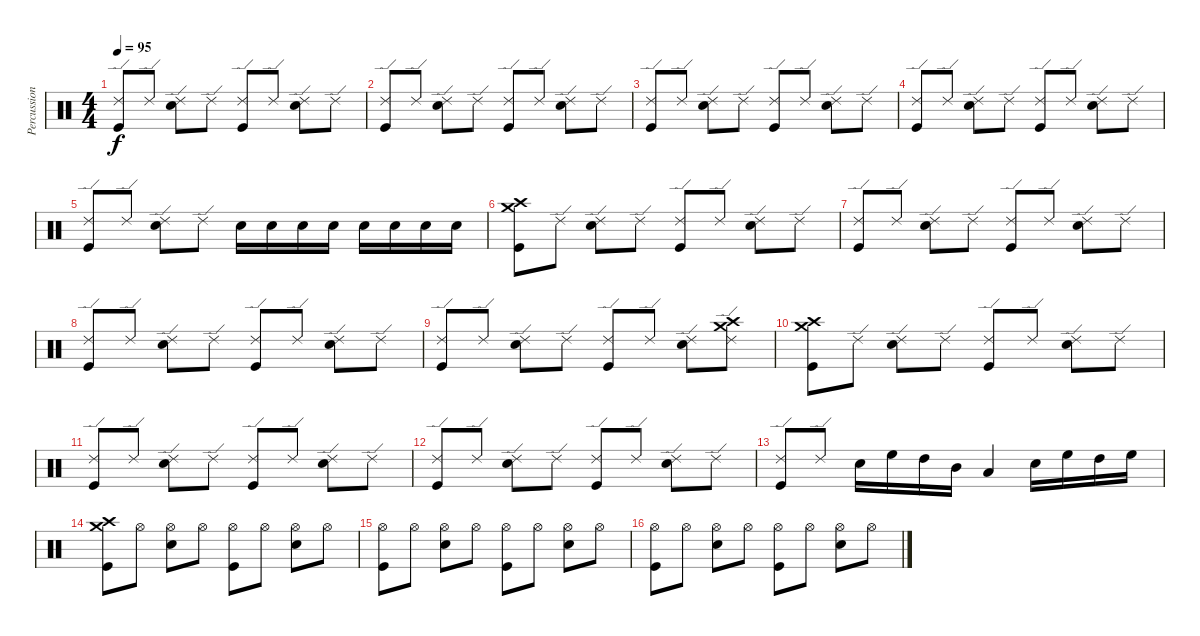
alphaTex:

\track ("Percussion" "Percussion") {instrument percussion}
\staff {score}
\articulation defaults
\ts (4 4)
\tempo 95
\clef neutral
\ks c
("Ride (edge) 2" "Kick (hit)").8{dy f} "Ride (edge) 2".8 ("Ride (edge) 2" "Electric Snare (hit)").8 "Ride (edge) 2".8 ("Ride (edge) 2" "Kick (hit)").8 "Ride (edge) 2".8 ("Ride (edge) 2" "Electric Snare (hit)").8 "Ride (edge) 2".8 |
("Ride (edge) 2" "Kick (hit)").8 "Ride (edge) 2".8 ("Ride (edge) 2" "Electric Snare (hit)").8 "Ride (edge) 2".8 ("Ride (edge) 2" "Kick (hit)").8 "Ride (edge) 2".8 ("Ride (edge) 2" "Electric Snare (hit)").8 "Ride (edge) 2".8 |
("Ride (edge) 2" "Kick (hit)").8 "Ride (edge) 2".8 ("Ride (edge) 2" "Electric Snare (hit)").8 "Ride (edge) 2".8 ("Ride (edge) 2" "Kick (hit)").8 "Ride (edge) 2".8 ("Ride (edge) 2" "Electric Snare (hit)").8 "Ride (edge) 2".8 |
("Ride (edge) 2" "Kick (hit)").8 "Ride (edge) 2".8 ("Ride (edge) 2" "Electric Snare (hit)").8 "Ride (edge) 2".8 ("Ride (edge) 2" "Kick (hit)").8 "Ride (edge) 2".8 ("Ride (edge) 2" "Electric Snare (hit)").8 "Ride (edge) 2".8 |
("Ride (edge) 2" "Kick (hit)").8 "Ride (edge) 2".8 ("Ride (edge) 2" "Electric Snare (hit)").8 "Ride (edge) 2".8 "Snare (hit) 2".16 "Snare (hit) 2".16 "Snare (hit) 2".16 "Snare (hit) 2".16 "Snare (hit) 2".16 "Snare (hit) 2".16 "Snare (hit) 2".16 "Snare (hit) 2".16 |
("Crash medium (hit)" "Crash high (hit)" "Kick (hit)").8 "Ride (edge) 2".8 ("Ride (edge) 2" "Electric Snare (hit)").8 "Ride (edge) 2".8 ("Ride (edge) 2" "Kick (hit)").8 "Ride (edge) 2".8 ("Ride (edge) 2" "Electric Snare (hit)").8 "Ride (edge) 2".8 |
("Ride (edge) 2" "Kick (hit)").8 "Ride (edge) 2".8 ("Ride (edge) 2" "Electric Snare (hit)").8 "Ride (edge) 2".8 ("Ride (edge) 2" "Kick (hit)").8 "Ride (edge) 2".8 ("Ride (edge) 2" "Electric Snare (hit)").8 "Ride (edge) 2".8 |
("Ride (edge) 2" "Kick (hit)").8 "Ride (edge) 2".8 ("Ride (edge) 2" "Electric Snare (hit)").8 "Ride (edge) 2".8 ("Ride (edge) 2" "Kick (hit)").8 "Ride (edge) 2".8 ("Ride (edge) 2" "Electric Snare (hit)").8 "Ride (edge) 2".8 |
("Ride (edge) 2" "Kick (hit)").8 "Ride (edge) 2".8 ("Ride (edge) 2" "Electric Snare (hit)").8 "Ride (edge) 2".8 ("Ride (edge) 2" "Kick (hit)").8 "Ride (edge) 2".8 ("Ride (edge) 2" "Electric Snare (hit)").8 ("Ride (edge) 2" "Crash medium (hit)" "Crash high (hit)").8 |
("Crash high (hit)" "Crash medium (hit)" "Kick (hit)").8 "Ride (edge) 2".8 ("Ride (edge) 2" "Electric Snare (hit)").8 "Ride (edge) 2".8 ("Ride (edge) 2" "Kick (hit)").8 "Ride (edge) 2".8 ("Ride (edge) 2" "Electric Snare (hit)").8 "Ride (edge) 2".8 |
("Ride (edge) 2" "Kick (hit)").8 "Ride (edge) 2".8 ("Ride (edge) 2" "Electric Snare (hit)").8 "Ride (edge) 2".8 ("Ride (edge) 2" "Kick (hit)").8 "Ride (edge) 2".8 ("Ride (edge) 2" "Electric Snare (hit)").8 "Ride (edge) 2".8 |
("Ride (edge) 2" "Kick (hit)").8 "Ride (edge) 2".8 ("Ride (edge) 2" "Electric Snare (hit)").8 "Ride (edge) 2".8 ("Ride (edge) 2" "Kick (hit)").8 "Ride (edge) 2".8 ("Ride (edge) 2" "Electric Snare (hit)").8 "Ride (edge) 2".8 |
("Ride (edge) 2" "Kick (hit)").8 "Ride (edge) 2".8 "Snare (hit) 2".16 "High Floor Tom (hit)".16 "High Tom (hit)".16 "Mid Tom (hit)".16 "Low Tom (hit)".4 "Snare (hit) 2".16 "High Floor Tom (hit)".16 "High Tom (hit)".16 "High Floor Tom (hit)".16 |
("Crash medium (hit)" "Crash high (hit)" "Kick (hit)").8 "Hi-Hat (open)".8 ("Hi-Hat (open)" "Electric Snare (hit)").8 "Hi-Hat (open)".8 ("Hi-Hat (open)" "Kick (hit)").8 "Hi-Hat (open)".8 ("Hi-Hat (open)" "Electric Snare (hit)").8 "Hi-Hat (open)".8 |
("Hi-Hat (open)" "Kick (hit)").8 "Hi-Hat (open)".8 ("Hi-Hat (open)" "Electric Snare (hit)").8 "Hi-Hat (open)".8 ("Hi-Hat (open)" "Kick (hit)").8 "Hi-Hat (open)".8 ("Hi-Hat (open)" "Electric Snare (hit)").8 "Hi-Hat (open)".8 |
("Hi-Hat (open)" "Kick (hit)").8 "Hi-Hat (open)".8 ("Hi-Hat (open)" "Electric Snare (hit)").8 "Hi-Hat (open)".8 ("Hi-Hat (open)" "Kick (hit)").8 "Hi-Hat (open)".8 ("Hi-Hat (open)" "Electric Snare (hit)").8 "Hi-Hat (open)".8
